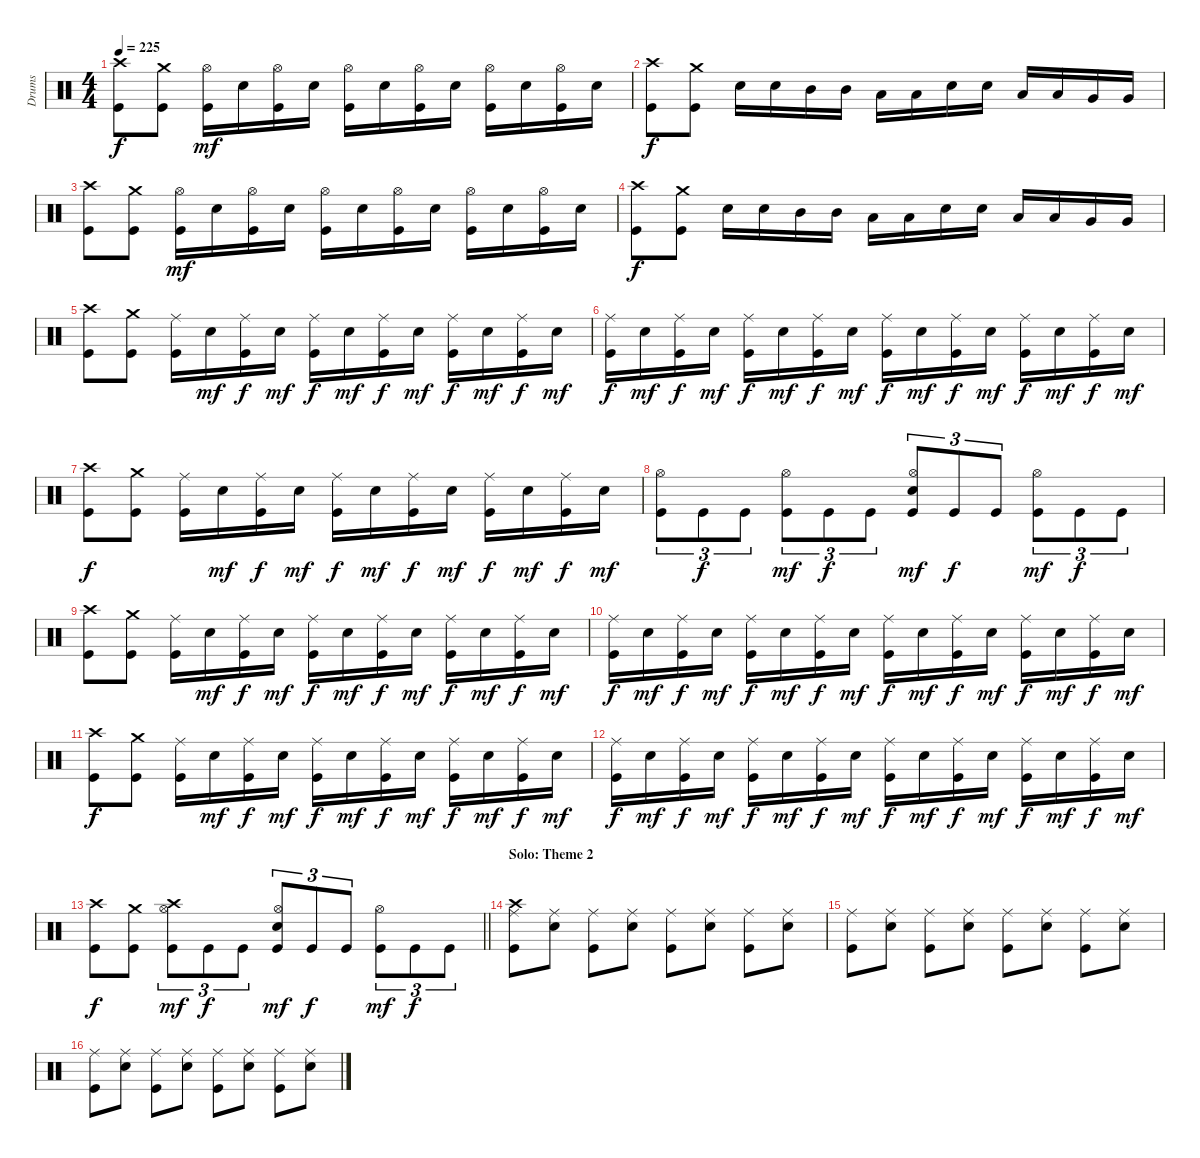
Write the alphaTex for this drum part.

\track ("Drums" "Drums") {instrument percussion}
\staff {score}
\articulation defaults
\ts (4 4)
\tempo 225
\clef neutral
\ks c
("Crash high (hit)" "Kick (hit)").8{dy f} ("Crash medium (hit)" "Kick (hit)").8 ("Hi-Hat (open)" "Kick (hit)").16{dy mf} "Electric Snare (hit)".16 ("Hi-Hat (open)" "Kick (hit)").16 "Electric Snare (hit)".16 ("Hi-Hat (open)" "Kick (hit)").16 "Electric Snare (hit)".16 ("Hi-Hat (open)" "Kick (hit)").16 "Electric Snare (hit)".16 ("Hi-Hat (open)" "Kick (hit)").16 "Electric Snare (hit)".16 ("Hi-Hat (open)" "Kick (hit)").16 "Electric Snare (hit)".16 |
("Crash high (hit)" "Kick (hit)").8{dy f} ("Crash medium (hit)" "Kick (hit)").8 "Electric Snare (hit)".16 "Electric Snare (hit)".16 "Mid Tom (hit)".16 "Mid Tom (hit)".16 "Low Tom (hit)".16 "Low Tom (hit)".16 "Electric Snare (hit)".16 "Electric Snare (hit)".16 "Low Tom (hit)".16 "Low Tom (hit)".16 "Very Low Tom (hit)".16 "Very Low Tom (hit)".16 |
("Crash high (hit)" "Kick (hit)").8 ("Crash medium (hit)" "Kick (hit)").8 ("Hi-Hat (open)" "Kick (hit)").16{dy mf} "Electric Snare (hit)".16 ("Hi-Hat (open)" "Kick (hit)").16 "Electric Snare (hit)".16 ("Hi-Hat (open)" "Kick (hit)").16 "Electric Snare (hit)".16 ("Hi-Hat (open)" "Kick (hit)").16 "Electric Snare (hit)".16 ("Hi-Hat (open)" "Kick (hit)").16 "Electric Snare (hit)".16 ("Hi-Hat (open)" "Kick (hit)").16 "Electric Snare (hit)".16 |
("Crash high (hit)" "Kick (hit)").8{dy f} ("Crash medium (hit)" "Kick (hit)").8 "Electric Snare (hit)".16 "Electric Snare (hit)".16 "Mid Tom (hit)".16 "Mid Tom (hit)".16 "Low Tom (hit)".16 "Low Tom (hit)".16 "Electric Snare (hit)".16 "Electric Snare (hit)".16 "Low Tom (hit)".16 "Low Tom (hit)".16 "Very Low Tom (hit)".16 "Very Low Tom (hit)".16 |
("Crash high (hit)" "Kick (hit)").8 ("Crash medium (hit)" "Kick (hit)").8 ("Ride (middle)" "Kick (hit)").16 "Electric Snare (hit)".16{dy mf} ("Ride (middle)" "Kick (hit)").16{dy f} "Electric Snare (hit)".16{dy mf} ("Ride (middle)" "Kick (hit)").16{dy f} "Electric Snare (hit)".16{dy mf} ("Ride (middle)" "Kick (hit)").16{dy f} "Electric Snare (hit)".16{dy mf} ("Ride (middle)" "Kick (hit)").16{dy f} "Electric Snare (hit)".16{dy mf} ("Ride (middle)" "Kick (hit)").16{dy f} "Electric Snare (hit)".16{dy mf} |
("Ride (middle)" "Kick (hit)").16{dy f} "Electric Snare (hit)".16{dy mf} ("Ride (middle)" "Kick (hit)").16{dy f} "Electric Snare (hit)".16{dy mf} ("Ride (middle)" "Kick (hit)").16{dy f} "Electric Snare (hit)".16{dy mf} ("Ride (middle)" "Kick (hit)").16{dy f} "Electric Snare (hit)".16{dy mf} ("Ride (middle)" "Kick (hit)").16{dy f} "Electric Snare (hit)".16{dy mf} ("Ride (middle)" "Kick (hit)").16{dy f} "Electric Snare (hit)".16{dy mf} ("Ride (middle)" "Kick (hit)").16{dy f} "Electric Snare (hit)".16{dy mf} ("Ride (middle)" "Kick (hit)").16{dy f} "Electric Snare (hit)".16{dy mf} |
("Crash high (hit)" "Kick (hit)").8{dy f} ("Crash medium (hit)" "Kick (hit)").8 ("Ride (middle)" "Kick (hit)").16 "Electric Snare (hit)".16{dy mf} ("Ride (middle)" "Kick (hit)").16{dy f} "Electric Snare (hit)".16{dy mf} ("Ride (middle)" "Kick (hit)").16{dy f} "Electric Snare (hit)".16{dy mf} ("Ride (middle)" "Kick (hit)").16{dy f} "Electric Snare (hit)".16{dy mf} ("Ride (middle)" "Kick (hit)").16{dy f} "Electric Snare (hit)".16{dy mf} ("Ride (middle)" "Kick (hit)").16{dy f} "Electric Snare (hit)".16{dy mf} |
("Hi-Hat (open)" "Kick (hit)").8{tu (3 2)} "Kick (hit)".8{tu (3 2) dy f} "Kick (hit)".8{tu (3 2)} ("Hi-Hat (open)" "Kick (hit)").8{tu (3 2) dy mf} "Kick (hit)".8{tu (3 2) dy f} "Kick (hit)".8{tu (3 2)} ("Hi-Hat (open)" "Electric Snare (hit)" "Kick (hit)").8{tu (3 2) dy mf} "Kick (hit)".8{tu (3 2) dy f} "Kick (hit)".8{tu (3 2)} ("Hi-Hat (open)" "Kick (hit)").8{tu (3 2) dy mf} "Kick (hit)".8{tu (3 2) dy f} "Kick (hit)".8{tu (3 2)} |
("Crash high (hit)" "Kick (hit)").8 ("Crash medium (hit)" "Kick (hit)").8 ("Ride (middle)" "Kick (hit)").16 "Electric Snare (hit)".16{dy mf} ("Ride (middle)" "Kick (hit)").16{dy f} "Electric Snare (hit)".16{dy mf} ("Ride (middle)" "Kick (hit)").16{dy f} "Electric Snare (hit)".16{dy mf} ("Ride (middle)" "Kick (hit)").16{dy f} "Electric Snare (hit)".16{dy mf} ("Ride (middle)" "Kick (hit)").16{dy f} "Electric Snare (hit)".16{dy mf} ("Ride (middle)" "Kick (hit)").16{dy f} "Electric Snare (hit)".16{dy mf} |
("Ride (middle)" "Kick (hit)").16{dy f} "Electric Snare (hit)".16{dy mf} ("Ride (middle)" "Kick (hit)").16{dy f} "Electric Snare (hit)".16{dy mf} ("Ride (middle)" "Kick (hit)").16{dy f} "Electric Snare (hit)".16{dy mf} ("Ride (middle)" "Kick (hit)").16{dy f} "Electric Snare (hit)".16{dy mf} ("Ride (middle)" "Kick (hit)").16{dy f} "Electric Snare (hit)".16{dy mf} ("Ride (middle)" "Kick (hit)").16{dy f} "Electric Snare (hit)".16{dy mf} ("Ride (middle)" "Kick (hit)").16{dy f} "Electric Snare (hit)".16{dy mf} ("Ride (middle)" "Kick (hit)").16{dy f} "Electric Snare (hit)".16{dy mf} |
("Crash high (hit)" "Kick (hit)").8{dy f} ("Crash medium (hit)" "Kick (hit)").8 ("Ride (middle)" "Kick (hit)").16 "Electric Snare (hit)".16{dy mf} ("Ride (middle)" "Kick (hit)").16{dy f} "Electric Snare (hit)".16{dy mf} ("Ride (middle)" "Kick (hit)").16{dy f} "Electric Snare (hit)".16{dy mf} ("Ride (middle)" "Kick (hit)").16{dy f} "Electric Snare (hit)".16{dy mf} ("Ride (middle)" "Kick (hit)").16{dy f} "Electric Snare (hit)".16{dy mf} ("Ride (middle)" "Kick (hit)").16{dy f} "Electric Snare (hit)".16{dy mf} |
("Ride (middle)" "Kick (hit)").16{dy f} "Electric Snare (hit)".16{dy mf} ("Ride (middle)" "Kick (hit)").16{dy f} "Electric Snare (hit)".16{dy mf} ("Ride (middle)" "Kick (hit)").16{dy f} "Electric Snare (hit)".16{dy mf} ("Ride (middle)" "Kick (hit)").16{dy f} "Electric Snare (hit)".16{dy mf} ("Ride (middle)" "Kick (hit)").16{dy f} "Electric Snare (hit)".16{dy mf} ("Ride (middle)" "Kick (hit)").16{dy f} "Electric Snare (hit)".16{dy mf} ("Ride (middle)" "Kick (hit)").16{dy f} "Electric Snare (hit)".16{dy mf} ("Ride (middle)" "Kick (hit)").16{dy f} "Electric Snare (hit)".16{dy mf} |
\barLineRight lightlight
("Crash high (hit)" "Kick (hit)").8{dy f} ("Crash medium (hit)" "Kick (hit)").8 ("Crash high (hit)" "Hi-Hat (open)" "Kick (hit)").8{tu (3 2) dy mf} "Kick (hit)".8{tu (3 2) dy f} "Kick (hit)".8{tu (3 2)} ("Hi-Hat (open)" "Electric Snare (hit)" "Kick (hit)").8{tu (3 2) dy mf} "Kick (hit)".8{tu (3 2) dy f} "Kick (hit)".8{tu (3 2)} ("Hi-Hat (open)" "Kick (hit)").8{tu (3 2) dy mf} "Kick (hit)".8{tu (3 2) dy f} "Kick (hit)".8{tu (3 2)} |
\section ("" "Solo: Theme 2")
("Crash high (hit)" "Ride (middle)" "Kick (hit)").8 ("Ride (middle)" "Electric Snare (hit)").8 ("Ride (middle)" "Kick (hit)").8 ("Ride (middle)" "Electric Snare (hit)").8 ("Ride (middle)" "Kick (hit)").8 ("Ride (middle)" "Electric Snare (hit)").8 ("Ride (middle)" "Kick (hit)").8 ("Ride (middle)" "Electric Snare (hit)").8 |
("Ride (middle)" "Kick (hit)").8 ("Ride (middle)" "Electric Snare (hit)").8 ("Ride (middle)" "Kick (hit)").8 ("Ride (middle)" "Electric Snare (hit)").8 ("Ride (middle)" "Kick (hit)").8 ("Ride (middle)" "Electric Snare (hit)").8 ("Ride (middle)" "Kick (hit)").8 ("Ride (middle)" "Electric Snare (hit)").8 |
("Ride (middle)" "Kick (hit)").8 ("Ride (middle)" "Electric Snare (hit)").8 ("Ride (middle)" "Kick (hit)").8 ("Ride (middle)" "Electric Snare (hit)").8 ("Ride (middle)" "Kick (hit)").8 ("Ride (middle)" "Electric Snare (hit)").8 ("Ride (middle)" "Kick (hit)").8 ("Ride (middle)" "Electric Snare (hit)").8
